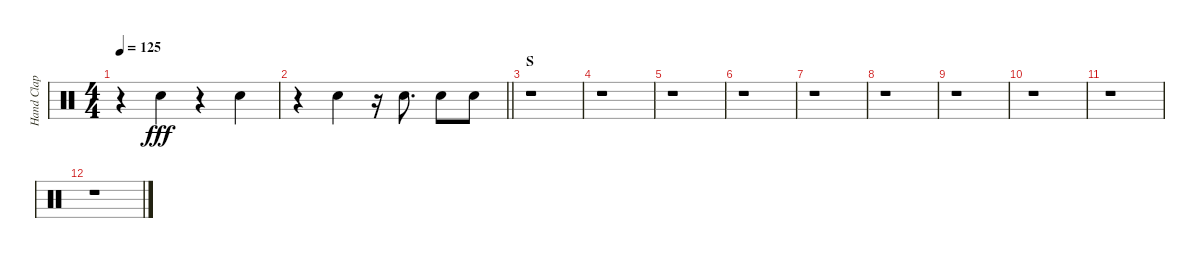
\track ("Hand Clap" "Hand Clap") {instrument percussion}
\staff {score}
\articulation defaults
\ts (4 4)
\tempo 125
\clef neutral
\ks c
r.4{dy fff} "Hand Clap (hit)".4 r.4 "Hand Clap (hit)".4 |
\barLineRight lightlight
r.4 "Hand Clap (hit)".4 r.16 "Hand Clap (hit)".8{d} "Hand Clap (hit)".8 "Hand Clap (hit)".8 |
\section ("" "S")
r.1 |
r.1 |
r.1 |
r.1 |
r.1 |
r.1 |
r.1 |
r.1 |
r.1 |
r.1
